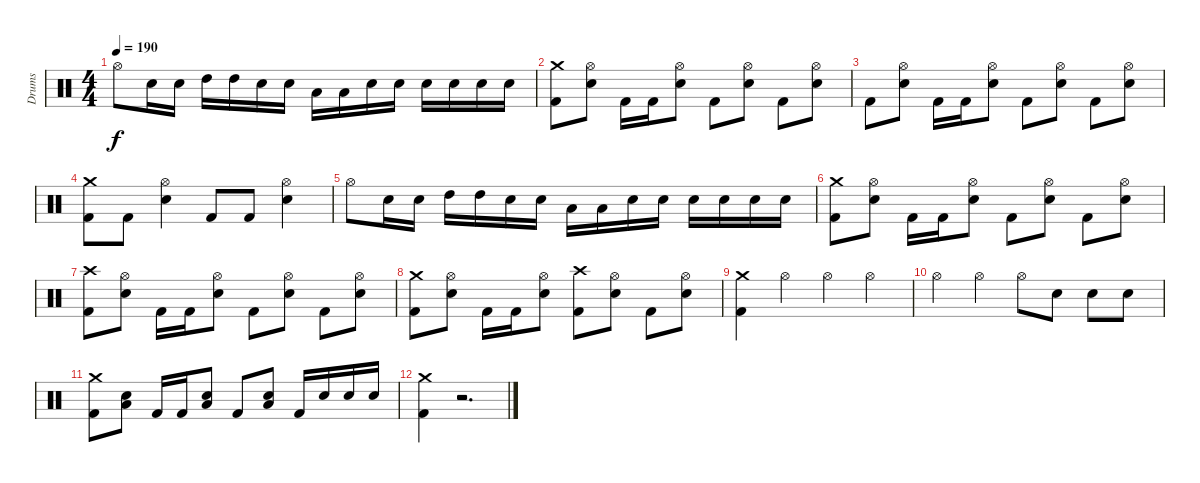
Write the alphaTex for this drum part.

\track ("Drums" "Drums") {instrument percussion}
\staff {score}
\articulation defaults
\ts (4 4)
\tempo 190
\clef neutral
\ks c "Hi-Hat (open)".8{dy f} "Electric Snare (hit)".16 "Electric Snare (hit)".16 "High Tom (hit)".16 "High Tom (hit)".16 "Electric Snare (hit)".16 "Electric Snare (hit)".16 "Low Tom (hit)".16 "Low Tom (hit)".16 "Electric Snare (hit)".16 "Electric Snare (hit)".16 "Electric Snare (hit)".16 "Electric Snare (hit)".16 "Electric Snare (hit)".16 "Electric Snare (hit)".16
|
("Crash medium (hit)" "Kick (hit) 2").8 ("Hi-Hat (open)" "Electric Snare (hit)").8 "Kick (hit) 2".16 "Kick (hit) 2".16 ("Hi-Hat (open)" "Electric Snare (hit)").8 "Kick (hit) 2".8 ("Hi-Hat (open)" "Electric Snare (hit)").8 "Kick (hit) 2".8 ("Hi-Hat (open)" "Electric Snare (hit)").8 |
"Kick (hit) 2".8 ("Hi-Hat (open)" "Electric Snare (hit)").8 "Kick (hit) 2".16 "Kick (hit) 2".16 ("Hi-Hat (open)" "Electric Snare (hit)").8 "Kick (hit) 2".8 ("Hi-Hat (open)" "Electric Snare (hit)").8 "Kick (hit) 2".8 ("Hi-Hat (open)" "Electric Snare (hit)").8 |
("Crash medium (hit)" "Kick (hit) 2").8 "Kick (hit) 2".8 ("Hi-Hat (open)" "Electric Snare (hit)").4 "Kick (hit) 2".8 "Kick (hit) 2".8 ("Hi-Hat (open)" "Electric Snare (hit)").4 |
"Hi-Hat (open)".8 "Electric Snare (hit)".16 "Electric Snare (hit)".16 "High Tom (hit)".16 "High Tom (hit)".16 "Electric Snare (hit)".16 "Electric Snare (hit)".16 "Low Tom (hit)".16 "Low Tom (hit)".16 "Electric Snare (hit)".16 "Electric Snare (hit)".16 "Electric Snare (hit)".16 "Electric Snare (hit)".16 "Electric Snare (hit)".16 "Electric Snare (hit)".16 |
("Crash medium (hit)" "Kick (hit) 2").8 ("Hi-Hat (open)" "Electric Snare (hit)").8 "Kick (hit) 2".16 "Kick (hit) 2".16 ("Hi-Hat (open)" "Electric Snare (hit)").8 "Kick (hit) 2".8 ("Hi-Hat (open)" "Electric Snare (hit)").8 "Kick (hit) 2".8 ("Hi-Hat (open)" "Electric Snare (hit)").8 |
("Crash high (hit)" "Kick (hit) 2").8 ("Hi-Hat (open)" "Electric Snare (hit)").8 "Kick (hit) 2".16 "Kick (hit) 2".16 ("Hi-Hat (open)" "Electric Snare (hit)").8 "Kick (hit) 2".8 ("Hi-Hat (open)" "Electric Snare (hit)").8 "Kick (hit) 2".8 ("Hi-Hat (open)" "Electric Snare (hit)").8 |
("Crash medium (hit)" "Kick (hit) 2").8 ("Hi-Hat (open)" "Electric Snare (hit)").8 "Kick (hit) 2".16 "Kick (hit) 2".16 ("Hi-Hat (open)" "Electric Snare (hit)").8 ("Crash high (hit)" "Kick (hit) 2").8 ("Hi-Hat (open)" "Electric Snare (hit)").8 "Kick (hit) 2".8 ("Hi-Hat (open)" "Electric Snare (hit)").8 |
("Crash medium (hit)" "Kick (hit) 2").4 "Hi-Hat (open)".4 "Hi-Hat (open)".4 "Hi-Hat (open)".4 |
"Hi-Hat (open)".4 "Hi-Hat (open)".4 "Hi-Hat (open)".8 "Electric Snare (hit)".8 "Electric Snare (hit)".8 "Electric Snare (hit)".8 |
("Crash medium (hit)" "Kick (hit) 2").8 ("Low Tom (hit)" "Electric Snare (hit)").8 "Kick (hit) 2".16 "Kick (hit) 2".16 ("Low Tom (hit)" "Electric Snare (hit)").8 "Kick (hit) 2".8 ("Low Tom (hit)" "Electric Snare (hit)").8 "Kick (hit) 2".16 "Electric Snare (hit)".16 "Electric Snare (hit)".16 "Electric Snare (hit)".16 |
("Crash medium (hit)" "Kick (hit) 2").4 r.2{d}
